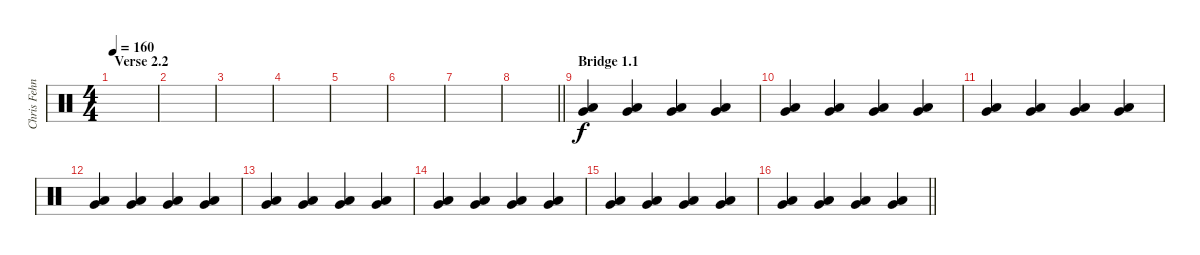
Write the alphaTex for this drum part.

\track ("Chris Fehn" "Chris Fehn") {instrument percussion}
\staff {score}
\articulation defaults
\ts (4 4)
\section ("" "Verse 2.2")
\tempo 160
\clef neutral
\ks c
|
|
|
|
|
|
|
\barLineRight lightlight
|
\section ("" "Bridge 1.1")
("Very Low Tom (hit)" "Low Floor Tom (hit)").4 ("Very Low Tom (hit)" "Low Floor Tom (hit)").4 ("Very Low Tom (hit)" "Low Floor Tom (hit)").4 ("Very Low Tom (hit)" "Low Floor Tom (hit)").4 |
("Very Low Tom (hit)" "Low Floor Tom (hit)").4 ("Very Low Tom (hit)" "Low Floor Tom (hit)").4 ("Very Low Tom (hit)" "Low Floor Tom (hit)").4 ("Very Low Tom (hit)" "Low Floor Tom (hit)").4 |
("Very Low Tom (hit)" "Low Floor Tom (hit)").4 ("Very Low Tom (hit)" "Low Floor Tom (hit)").4 ("Very Low Tom (hit)" "Low Floor Tom (hit)").4 ("Very Low Tom (hit)" "Low Floor Tom (hit)").4 |
("Very Low Tom (hit)" "Low Floor Tom (hit)").4 ("Very Low Tom (hit)" "Low Floor Tom (hit)").4 ("Very Low Tom (hit)" "Low Floor Tom (hit)").4 ("Very Low Tom (hit)" "Low Floor Tom (hit)").4 |
("Very Low Tom (hit)" "Low Floor Tom (hit)").4 ("Very Low Tom (hit)" "Low Floor Tom (hit)").4 ("Very Low Tom (hit)" "Low Floor Tom (hit)").4 ("Very Low Tom (hit)" "Low Floor Tom (hit)").4 |
("Very Low Tom (hit)" "Low Floor Tom (hit)").4 ("Very Low Tom (hit)" "Low Floor Tom (hit)").4 ("Very Low Tom (hit)" "Low Floor Tom (hit)").4 ("Very Low Tom (hit)" "Low Floor Tom (hit)").4 |
("Very Low Tom (hit)" "Low Floor Tom (hit)").4 ("Very Low Tom (hit)" "Low Floor Tom (hit)").4 ("Very Low Tom (hit)" "Low Floor Tom (hit)").4 ("Very Low Tom (hit)" "Low Floor Tom (hit)").4 |
\barLineRight lightlight
("Very Low Tom (hit)" "Low Floor Tom (hit)").4 ("Very Low Tom (hit)" "Low Floor Tom (hit)").4 ("Very Low Tom (hit)" "Low Floor Tom (hit)").4 ("Very Low Tom (hit)" "Low Floor Tom (hit)").4
